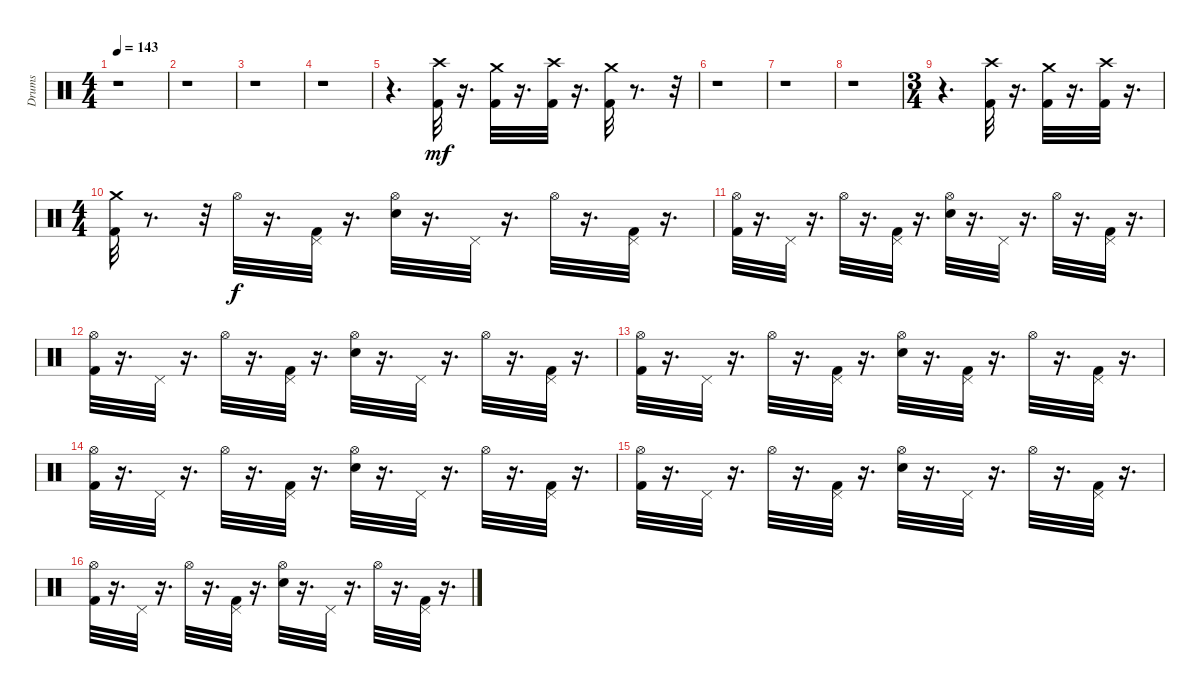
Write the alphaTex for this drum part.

\track ("Drums" "Drums") {instrument percussion}
\staff {score}
\articulation defaults
\ts (4 4)
\tempo 143
\clef neutral
\ks c
r.1{dy mf} |
r.1 |
r.1 |
r.1 |
r.4{d} ("Kick (hit) 2" "Crash high (hit)").32 r.16{d} ("Kick (hit) 2" "Crash medium (hit)").32 r.16{d} ("Kick (hit) 2" "Crash high (hit)").32 r.16{d} ("Kick (hit) 2" "Crash medium (hit)").32 r.8{d} r.32 |
r.1 |
r.1 |
r.1 |
\ts (3 4)
r.4{d} ("Kick (hit) 2" "Crash high (hit)").32 r.16{d} ("Kick (hit) 2" "Crash medium (hit)").32 r.16{d} ("Kick (hit) 2" "Crash high (hit)").32 r.16{d} |
\ts (4 4)
("Kick (hit) 2" "Crash medium (hit)").32 r.8{d} r.32 "Hi-Hat (open)".32{dy f} r.16{d} ("Kick (hit) 2" "Pedal Hi-Hat (hit)").32 r.16{d} ("Snare (hit) 2" "Hi-Hat (open)").32 r.16{d} "Pedal Hi-Hat (hit)".32 r.16{d} "Hi-Hat (open)".32 r.16{d} ("Kick (hit) 2" "Pedal Hi-Hat (hit)").32 r.16{d} |
("Kick (hit) 2" "Hi-Hat (open)").32 r.16{d} "Pedal Hi-Hat (hit)".32 r.16{d} "Hi-Hat (open)".32 r.16{d} ("Kick (hit) 2" "Pedal Hi-Hat (hit)").32 r.16{d} ("Snare (hit) 2" "Hi-Hat (open)").32 r.16{d} "Pedal Hi-Hat (hit)".32 r.16{d} "Hi-Hat (open)".32 r.16{d} ("Kick (hit) 2" "Pedal Hi-Hat (hit)").32 r.16{d} |
("Kick (hit) 2" "Hi-Hat (open)").32 r.16{d} "Pedal Hi-Hat (hit)".32 r.16{d} "Hi-Hat (open)".32 r.16{d} ("Kick (hit) 2" "Pedal Hi-Hat (hit)").32 r.16{d} ("Snare (hit) 2" "Hi-Hat (open)").32 r.16{d} "Pedal Hi-Hat (hit)".32 r.16{d} "Hi-Hat (open)".32 r.16{d} ("Kick (hit) 2" "Pedal Hi-Hat (hit)").32 r.16{d} |
("Kick (hit) 2" "Hi-Hat (open)").32 r.16{d} "Pedal Hi-Hat (hit)".32 r.16{d} "Hi-Hat (open)".32 r.16{d} ("Kick (hit) 2" "Pedal Hi-Hat (hit)").32 r.16{d} ("Snare (hit) 2" "Hi-Hat (open)").32 r.16{d} ("Kick (hit) 2" "Pedal Hi-Hat (hit)").32 r.16{d} "Hi-Hat (open)".32 r.16{d} ("Kick (hit) 2" "Pedal Hi-Hat (hit)").32 r.16{d} |
("Kick (hit) 2" "Hi-Hat (open)").32 r.16{d} "Pedal Hi-Hat (hit)".32 r.16{d} "Hi-Hat (open)".32 r.16{d} ("Kick (hit) 2" "Pedal Hi-Hat (hit)").32 r.16{d} ("Snare (hit) 2" "Hi-Hat (open)").32 r.16{d} "Pedal Hi-Hat (hit)".32 r.16{d} "Hi-Hat (open)".32 r.16{d} ("Kick (hit) 2" "Pedal Hi-Hat (hit)").32 r.16{d} |
("Kick (hit) 2" "Hi-Hat (open)").32 r.16{d} "Pedal Hi-Hat (hit)".32 r.16{d} "Hi-Hat (open)".32 r.16{d} ("Kick (hit) 2" "Pedal Hi-Hat (hit)").32 r.16{d} ("Snare (hit) 2" "Hi-Hat (open)").32 r.16{d} "Pedal Hi-Hat (hit)".32 r.16{d} "Hi-Hat (open)".32 r.16{d} ("Kick (hit) 2" "Pedal Hi-Hat (hit)").32 r.16{d} |
("Kick (hit) 2" "Hi-Hat (open)").32 r.16{d} "Pedal Hi-Hat (hit)".32 r.16{d} "Hi-Hat (open)".32 r.16{d} ("Kick (hit) 2" "Pedal Hi-Hat (hit)").32 r.16{d} ("Snare (hit) 2" "Hi-Hat (open)").32 r.16{d} "Pedal Hi-Hat (hit)".32 r.16{d} "Hi-Hat (open)".32 r.16{d} ("Kick (hit) 2" "Pedal Hi-Hat (hit)").32 r.16{d}
